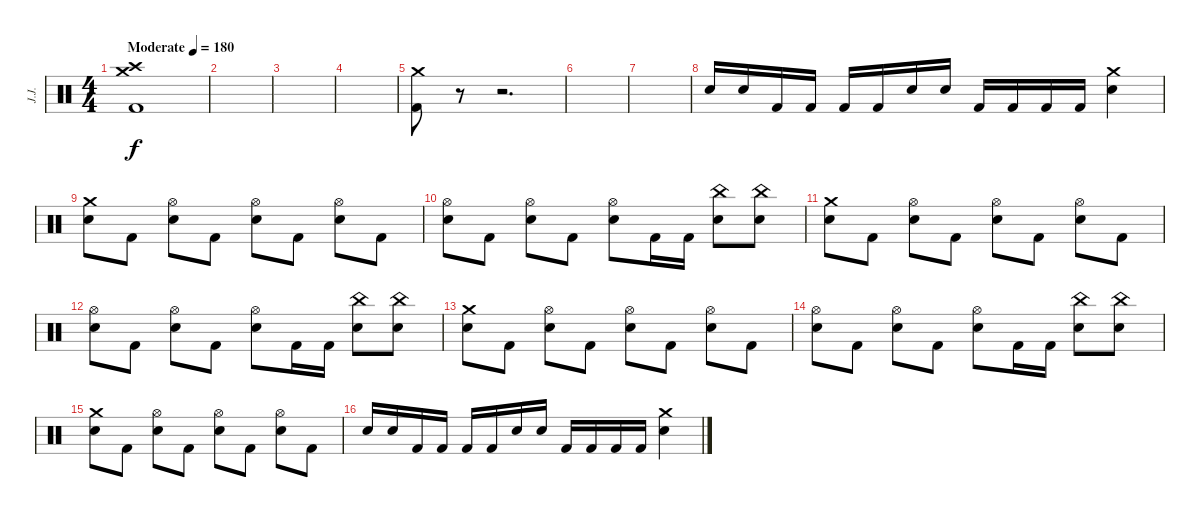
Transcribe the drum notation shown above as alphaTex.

\track ("J.J." "J.J.") {instrument percussion}
\staff {score}
\articulation defaults
\ts (4 4)
\tempo (180 "Moderate")
\clef neutral
\ks c
("Crash medium (hit)" "Crash high (hit)" "Kick (hit) 2").1{dy f} |
|
|
|
("Crash medium (hit)" "Kick (hit) 2").8 r.8 r.2{d} |
|
|
"Electric Snare (hit)".16 "Electric Snare (hit)".16 "Kick (hit) 2".16 "Kick (hit) 2".16 "Kick (hit) 2".16 "Kick (hit) 2".16 "Electric Snare (hit)".16 "Electric Snare (hit)".16 "Kick (hit) 2".16 "Kick (hit) 2".16 "Kick (hit) 2".16 "Kick (hit) 2".16 ("Crash medium (hit)" "Electric Snare (hit)").4 |
("Crash medium (hit)" "Electric Snare (hit)").8 "Kick (hit) 2".8 ("Hi-Hat (open)" "Electric Snare (hit)").8 "Kick (hit) 2".8 ("Hi-Hat (open)" "Electric Snare (hit)").8 "Kick (hit) 2".8 ("Hi-Hat (open)" "Electric Snare (hit)").8 "Kick (hit) 2".8 |
("Hi-Hat (open)" "Electric Snare (hit)").8 "Kick (hit) 2".8 ("Hi-Hat (open)" "Electric Snare (hit)").8 "Kick (hit) 2".8 ("Hi-Hat (open)" "Electric Snare (hit)").8 "Kick (hit) 2".16 "Kick (hit) 2".16 ("China (hit)" "Electric Snare (hit)").8 ("China (hit)" "Electric Snare (hit)").8 |
("Crash medium (hit)" "Electric Snare (hit)").8 "Kick (hit) 2".8 ("Hi-Hat (open)" "Electric Snare (hit)").8 "Kick (hit) 2".8 ("Hi-Hat (open)" "Electric Snare (hit)").8 "Kick (hit) 2".8 ("Hi-Hat (open)" "Electric Snare (hit)").8 "Kick (hit) 2".8 |
("Hi-Hat (open)" "Electric Snare (hit)").8 "Kick (hit) 2".8 ("Hi-Hat (open)" "Electric Snare (hit)").8 "Kick (hit) 2".8 ("Hi-Hat (open)" "Electric Snare (hit)").8 "Kick (hit) 2".16 "Kick (hit) 2".16 ("China (hit)" "Electric Snare (hit)").8 ("China (hit)" "Electric Snare (hit)").8 |
("Crash medium (hit)" "Electric Snare (hit)").8 "Kick (hit) 2".8 ("Hi-Hat (open)" "Electric Snare (hit)").8 "Kick (hit) 2".8 ("Hi-Hat (open)" "Electric Snare (hit)").8 "Kick (hit) 2".8 ("Hi-Hat (open)" "Electric Snare (hit)").8 "Kick (hit) 2".8 |
("Hi-Hat (open)" "Electric Snare (hit)").8 "Kick (hit) 2".8 ("Hi-Hat (open)" "Electric Snare (hit)").8 "Kick (hit) 2".8 ("Hi-Hat (open)" "Electric Snare (hit)").8 "Kick (hit) 2".16 "Kick (hit) 2".16 ("China (hit)" "Electric Snare (hit)").8 ("China (hit)" "Electric Snare (hit)").8 |
("Crash medium (hit)" "Electric Snare (hit)").8 "Kick (hit) 2".8 ("Hi-Hat (open)" "Electric Snare (hit)").8 "Kick (hit) 2".8 ("Hi-Hat (open)" "Electric Snare (hit)").8 "Kick (hit) 2".8 ("Hi-Hat (open)" "Electric Snare (hit)").8 "Kick (hit) 2".8 |
"Electric Snare (hit)".16 "Electric Snare (hit)".16 "Kick (hit) 2".16 "Kick (hit) 2".16 "Kick (hit) 2".16 "Kick (hit) 2".16 "Electric Snare (hit)".16 "Electric Snare (hit)".16 "Kick (hit) 2".16 "Kick (hit) 2".16 "Kick (hit) 2".16 "Kick (hit) 2".16 ("Crash medium (hit)" "Electric Snare (hit)").4
